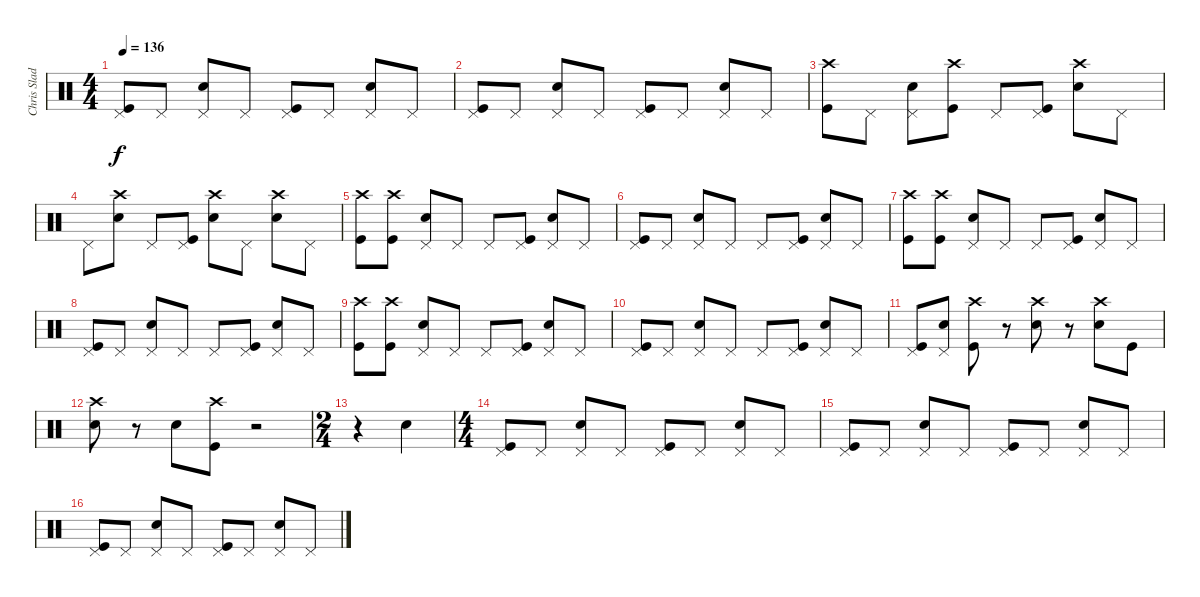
\track ("Chris Slade" "Chris Slad") {instrument percussion}
\staff {score}
\articulation defaults
\ts (4 4)
\tempo 136
\clef neutral
\ks c
("Pedal Hi-Hat (hit)" "Kick (hit)").8{dy f} "Pedal Hi-Hat (hit)".8 ("Pedal Hi-Hat (hit)" "Snare (hit) 2").8 "Pedal Hi-Hat (hit)".8 ("Pedal Hi-Hat (hit)" "Kick (hit)").8 "Pedal Hi-Hat (hit)".8 ("Pedal Hi-Hat (hit)" "Snare (hit) 2").8 "Pedal Hi-Hat (hit)".8 |
("Pedal Hi-Hat (hit)" "Kick (hit)").8 "Pedal Hi-Hat (hit)".8 ("Pedal Hi-Hat (hit)" "Snare (hit) 2").8 "Pedal Hi-Hat (hit)".8 ("Pedal Hi-Hat (hit)" "Kick (hit)").8 "Pedal Hi-Hat (hit)".8 ("Pedal Hi-Hat (hit)" "Snare (hit) 2").8 "Pedal Hi-Hat (hit)".8 |
("Crash high (hit)" "Kick (hit)").8 "Pedal Hi-Hat (hit)".8 ("Pedal Hi-Hat (hit)" "Snare (hit) 2").8 ("Crash high (hit)" "Kick (hit)").8 "Pedal Hi-Hat (hit)".8 ("Pedal Hi-Hat (hit)" "Kick (hit)").8 ("Crash high (hit)" "Snare (hit) 2").8 "Pedal Hi-Hat (hit)".8 |
"Pedal Hi-Hat (hit)".8 ("Crash high (hit)" "Snare (hit) 2").8 "Pedal Hi-Hat (hit)".8 ("Pedal Hi-Hat (hit)" "Kick (hit)").8 ("Crash high (hit)" "Snare (hit) 2").8 "Pedal Hi-Hat (hit)".8 ("Crash high (hit)" "Snare (hit) 2").8 "Pedal Hi-Hat (hit)".8 |
("Crash high (hit)" "Kick (hit)").8 ("Crash high (hit)" "Kick (hit)").8 ("Pedal Hi-Hat (hit)" "Snare (hit) 2").8 "Pedal Hi-Hat (hit)".8 "Pedal Hi-Hat (hit)".8 ("Pedal Hi-Hat (hit)" "Kick (hit)").8 ("Pedal Hi-Hat (hit)" "Snare (hit) 2").8 "Pedal Hi-Hat (hit)".8 |
("Pedal Hi-Hat (hit)" "Kick (hit)").8 "Pedal Hi-Hat (hit)".8 ("Pedal Hi-Hat (hit)" "Snare (hit) 2").8 "Pedal Hi-Hat (hit)".8 "Pedal Hi-Hat (hit)".8 ("Pedal Hi-Hat (hit)" "Kick (hit)").8 ("Pedal Hi-Hat (hit)" "Snare (hit) 2").8 "Pedal Hi-Hat (hit)".8 |
("Crash high (hit)" "Kick (hit)").8 ("Crash high (hit)" "Kick (hit)").8 ("Pedal Hi-Hat (hit)" "Snare (hit) 2").8 "Pedal Hi-Hat (hit)".8 "Pedal Hi-Hat (hit)".8 ("Pedal Hi-Hat (hit)" "Kick (hit)").8 ("Pedal Hi-Hat (hit)" "Snare (hit) 2").8 "Pedal Hi-Hat (hit)".8 |
("Pedal Hi-Hat (hit)" "Kick (hit)").8 "Pedal Hi-Hat (hit)".8 ("Pedal Hi-Hat (hit)" "Snare (hit) 2").8 "Pedal Hi-Hat (hit)".8 "Pedal Hi-Hat (hit)".8 ("Pedal Hi-Hat (hit)" "Kick (hit)").8 ("Pedal Hi-Hat (hit)" "Snare (hit) 2").8 "Pedal Hi-Hat (hit)".8 |
("Crash high (hit)" "Kick (hit)").8 ("Crash high (hit)" "Kick (hit)").8 ("Pedal Hi-Hat (hit)" "Snare (hit) 2").8 "Pedal Hi-Hat (hit)".8 "Pedal Hi-Hat (hit)".8 ("Pedal Hi-Hat (hit)" "Kick (hit)").8 ("Pedal Hi-Hat (hit)" "Snare (hit) 2").8 "Pedal Hi-Hat (hit)".8 |
("Pedal Hi-Hat (hit)" "Kick (hit)").8 "Pedal Hi-Hat (hit)".8 ("Pedal Hi-Hat (hit)" "Snare (hit) 2").8 "Pedal Hi-Hat (hit)".8 "Pedal Hi-Hat (hit)".8 ("Pedal Hi-Hat (hit)" "Kick (hit)").8 ("Pedal Hi-Hat (hit)" "Snare (hit) 2").8 "Pedal Hi-Hat (hit)".8 |
("Pedal Hi-Hat (hit)" "Kick (hit)").8 ("Pedal Hi-Hat (hit)" "Snare (hit) 2").8 ("Crash high (hit)" "Kick (hit)").8 r.8 ("Crash high (hit)" "Snare (hit) 2").8 r.8 ("Crash high (hit)" "Snare (hit) 2").8 "Kick (hit)".8 |
("Crash high (hit)" "Snare (hit) 2").8 r.8 "Snare (hit) 2".8 ("Crash high (hit)" "Kick (hit)").8 r.2 |
\ts (2 4)
r.4 "Snare (hit) 2".4 |
\ts (4 4)
("Pedal Hi-Hat (hit)" "Kick (hit)").8 "Pedal Hi-Hat (hit)".8 ("Pedal Hi-Hat (hit)" "Snare (hit) 2").8 "Pedal Hi-Hat (hit)".8 ("Pedal Hi-Hat (hit)" "Kick (hit)").8 "Pedal Hi-Hat (hit)".8 ("Pedal Hi-Hat (hit)" "Snare (hit) 2").8 "Pedal Hi-Hat (hit)".8 |
("Pedal Hi-Hat (hit)" "Kick (hit)").8 "Pedal Hi-Hat (hit)".8 ("Pedal Hi-Hat (hit)" "Snare (hit) 2").8 "Pedal Hi-Hat (hit)".8 ("Pedal Hi-Hat (hit)" "Kick (hit)").8 "Pedal Hi-Hat (hit)".8 ("Pedal Hi-Hat (hit)" "Snare (hit) 2").8 "Pedal Hi-Hat (hit)".8 |
("Pedal Hi-Hat (hit)" "Kick (hit)").8 "Pedal Hi-Hat (hit)".8 ("Pedal Hi-Hat (hit)" "Snare (hit) 2").8 "Pedal Hi-Hat (hit)".8 ("Pedal Hi-Hat (hit)" "Kick (hit)").8 "Pedal Hi-Hat (hit)".8 ("Pedal Hi-Hat (hit)" "Snare (hit) 2").8 "Pedal Hi-Hat (hit)".8
